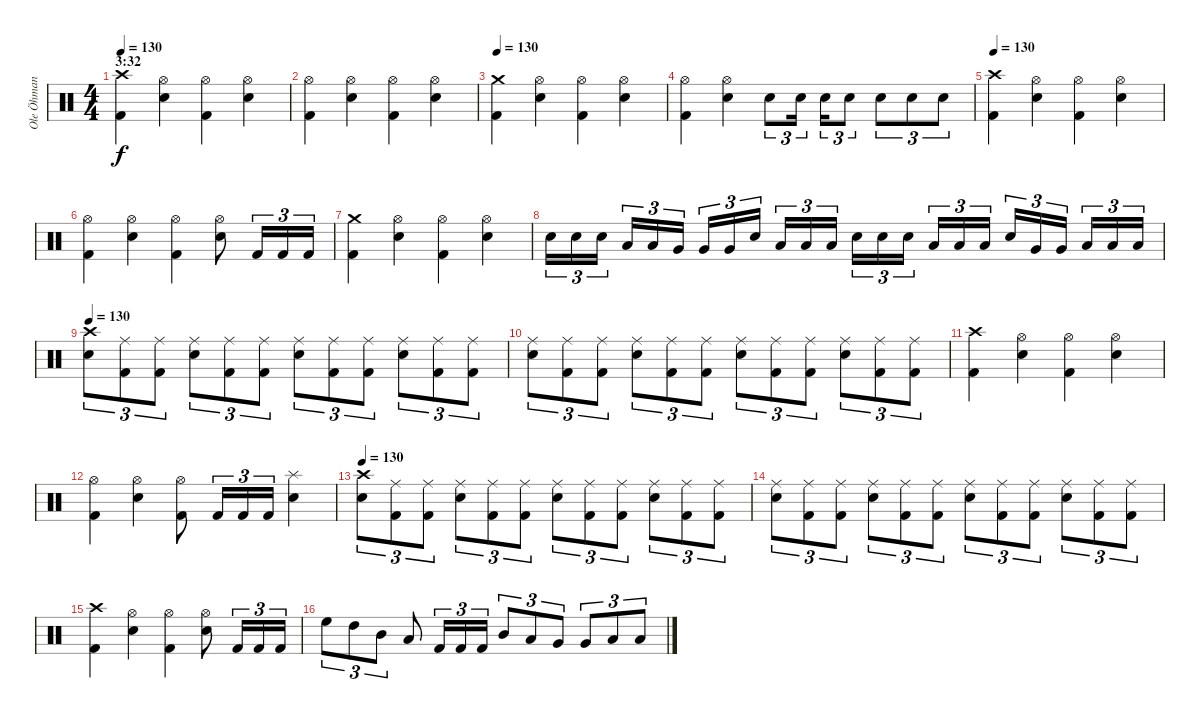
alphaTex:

\track ("Ole Öhman" "Ole Öhman") {instrument percussion}
\staff {score}
\articulation defaults
\ts (4 4)
\section ("" "3:32")
\tempo 130
\clef neutral
\ks c
("Crash high (hit)" "Kick (hit) 2").4{dy f} ("Hi-Hat (open)" "Electric Snare (hit)").4 ("Hi-Hat (open)" "Kick (hit) 2").4 ("Hi-Hat (open)" "Electric Snare (hit)").4 |
("Hi-Hat (open)" "Kick (hit) 2").4 ("Hi-Hat (open)" "Electric Snare (hit)").4 ("Hi-Hat (open)" "Kick (hit) 2").4 ("Hi-Hat (open)" "Electric Snare (hit)").4 |
\tempo 130
("Crash medium (hit)" "Kick (hit) 2").4 ("Hi-Hat (open)" "Electric Snare (hit)").4 ("Hi-Hat (open)" "Kick (hit) 2").4 ("Hi-Hat (open)" "Electric Snare (hit)").4 |
("Hi-Hat (open)" "Kick (hit) 2").4 ("Hi-Hat (open)" "Electric Snare (hit)").4 "Electric Snare (hit)".8{tu (3 2)} "Electric Snare (hit)".16{tu (3 2)} "Electric Snare (hit)".16{tu (3 2)} "Electric Snare (hit)".8{tu (3 2)} "Electric Snare (hit)".8{tu (3 2)} "Electric Snare (hit)".8{tu (3 2)} "Electric Snare (hit)".8{tu (3 2)} |
\tempo 130
("Crash high (hit)" "Kick (hit) 2").4 ("Hi-Hat (open)" "Electric Snare (hit)").4 ("Hi-Hat (open)" "Kick (hit) 2").4 ("Hi-Hat (open)" "Electric Snare (hit)").4 |
("Hi-Hat (open)" "Kick (hit) 2").4 ("Hi-Hat (open)" "Electric Snare (hit)").4 ("Hi-Hat (open)" "Kick (hit) 2").4 ("Hi-Hat (open)" "Electric Snare (hit)").8 "Kick (hit) 2".16{tu (3 2)} "Kick (hit) 2".16{tu (3 2)} "Kick (hit) 2".16{tu (3 2)} |
("Crash medium (hit)" "Kick (hit) 2").4 ("Hi-Hat (open)" "Electric Snare (hit)").4 ("Hi-Hat (open)" "Kick (hit) 2").4 ("Hi-Hat (open)" "Electric Snare (hit)").4 |
"Electric Snare (hit)".16{tu (3 2)} "Electric Snare (hit)".16{tu (3 2)} "Electric Snare (hit)".16{tu (3 2)} "Low Tom (hit)".16{tu (3 2)} "Low Tom (hit)".16{tu (3 2)} "Very Low Tom (hit)".16{tu (3 2)} "Very Low Tom (hit)".16{tu (3 2)} "Very Low Tom (hit)".16{tu (3 2)} "Electric Snare (hit)".16{tu (3 2)} "Low Floor Tom (hit)".16{tu (3 2)} "Low Floor Tom (hit)".16{tu (3 2)} "Low Floor Tom (hit)".16{tu (3 2)} "Electric Snare (hit)".16{tu (3 2)} "Electric Snare (hit)".16{tu (3 2)} "Electric Snare (hit)".16{tu (3 2)} "Low Tom (hit)".16{tu (3 2)} "Low Tom (hit)".16{tu (3 2)} "Low Tom (hit)".16{tu (3 2)} "Electric Snare (hit)".16{tu (3 2)} "Very Low Tom (hit)".16{tu (3 2)} "Very Low Tom (hit)".16{tu (3 2)} "Low Floor Tom (hit)".16{tu (3 2)} "Low Floor Tom (hit)".16{tu (3 2)} "Low Floor Tom (hit)".16{tu (3 2)} |
\tempo 130
("Crash high (hit)" "Electric Snare (hit)").8{tu (3 2)} ("Ride (middle)" "Kick (hit) 2").8{tu (3 2)} ("Ride (middle)" "Kick (hit) 2").8{tu (3 2)} ("Ride (middle)" "Electric Snare (hit)").8{tu (3 2)} ("Ride (middle)" "Kick (hit) 2").8{tu (3 2)} ("Ride (middle)" "Kick (hit) 2").8{tu (3 2)} ("Ride (middle)" "Electric Snare (hit)").8{tu (3 2)} ("Ride (middle)" "Kick (hit) 2").8{tu (3 2)} ("Ride (middle)" "Kick (hit) 2").8{tu (3 2)} ("Ride (middle)" "Electric Snare (hit)").8{tu (3 2)} ("Ride (middle)" "Kick (hit) 2").8{tu (3 2)} ("Ride (middle)" "Kick (hit) 2").8{tu (3 2)} |
("Ride (middle)" "Electric Snare (hit)").8{tu (3 2)} ("Ride (middle)" "Kick (hit) 2").8{tu (3 2)} ("Ride (middle)" "Kick (hit) 2").8{tu (3 2)} ("Ride (middle)" "Electric Snare (hit)").8{tu (3 2)} ("Ride (middle)" "Kick (hit) 2").8{tu (3 2)} ("Ride (middle)" "Kick (hit) 2").8{tu (3 2)} ("Ride (middle)" "Electric Snare (hit)").8{tu (3 2)} ("Ride (middle)" "Kick (hit) 2").8{tu (3 2)} ("Ride (middle)" "Kick (hit) 2").8{tu (3 2)} ("Ride (middle)" "Electric Snare (hit)").8{tu (3 2)} ("Ride (middle)" "Kick (hit) 2").8{tu (3 2)} ("Ride (middle)" "Kick (hit) 2").8{tu (3 2)} |
("Crash high (hit)" "Kick (hit) 2").4 ("Hi-Hat (open)" "Electric Snare (hit)").4 ("Hi-Hat (open)" "Kick (hit) 2").4 ("Hi-Hat (open)" "Electric Snare (hit)").4 |
("Hi-Hat (open)" "Kick (hit) 2").4 ("Hi-Hat (open)" "Electric Snare (hit)").4 ("Hi-Hat (open)" "Kick (hit) 2").8 "Kick (hit) 2".16{tu (3 2)} "Kick (hit) 2".16{tu (3 2)} "Kick (hit) 2".16{tu (3 2)} ("Splash (hit)" "Electric Snare (hit)").4 |
\tempo 130
("Crash high (hit)" "Electric Snare (hit)").8{tu (3 2)} ("Ride (middle)" "Kick (hit) 2").8{tu (3 2)} ("Ride (middle)" "Kick (hit) 2").8{tu (3 2)} ("Ride (middle)" "Electric Snare (hit)").8{tu (3 2)} ("Ride (middle)" "Kick (hit) 2").8{tu (3 2)} ("Ride (middle)" "Kick (hit) 2").8{tu (3 2)} ("Ride (middle)" "Electric Snare (hit)").8{tu (3 2)} ("Ride (middle)" "Kick (hit) 2").8{tu (3 2)} ("Ride (middle)" "Kick (hit) 2").8{tu (3 2)} ("Ride (middle)" "Electric Snare (hit)").8{tu (3 2)} ("Ride (middle)" "Kick (hit) 2").8{tu (3 2)} ("Ride (middle)" "Kick (hit) 2").8{tu (3 2)} |
("Ride (middle)" "Electric Snare (hit)").8{tu (3 2)} ("Ride (middle)" "Kick (hit) 2").8{tu (3 2)} ("Ride (middle)" "Kick (hit) 2").8{tu (3 2)} ("Ride (middle)" "Electric Snare (hit)").8{tu (3 2)} ("Ride (middle)" "Kick (hit) 2").8{tu (3 2)} ("Ride (middle)" "Kick (hit) 2").8{tu (3 2)} ("Ride (middle)" "Electric Snare (hit)").8{tu (3 2)} ("Ride (middle)" "Kick (hit) 2").8{tu (3 2)} ("Ride (middle)" "Kick (hit) 2").8{tu (3 2)} ("Ride (middle)" "Electric Snare (hit)").8{tu (3 2)} ("Ride (middle)" "Kick (hit) 2").8{tu (3 2)} ("Ride (middle)" "Kick (hit) 2").8{tu (3 2)} |
("Crash high (hit)" "Kick (hit) 2").4 ("Hi-Hat (open)" "Electric Snare (hit)").4 ("Hi-Hat (open)" "Kick (hit) 2").4 ("Hi-Hat (open)" "Electric Snare (hit)").8 "Kick (hit) 2".16{tu (3 2)} "Kick (hit) 2".16{tu (3 2)} "Kick (hit) 2".16{tu (3 2)} |
"High Floor Tom (hit)".8{tu (3 2)} "High Tom (hit)".8{tu (3 2)} "Mid Tom (hit)".8{tu (3 2)} "Low Tom (hit)".8 "Kick (hit) 2".16{tu (3 2)} "Kick (hit) 2".16{tu (3 2)} "Kick (hit) 2".16{tu (3 2)} "Mid Tom (hit)".8{tu (3 2)} "Low Tom (hit)".8{tu (3 2)} "Very Low Tom (hit)".8{tu (3 2)} "Very Low Tom (hit)".8{tu (3 2)} "Low Floor Tom (hit)".8{tu (3 2)} "Low Floor Tom (hit)".8{tu (3 2)}
